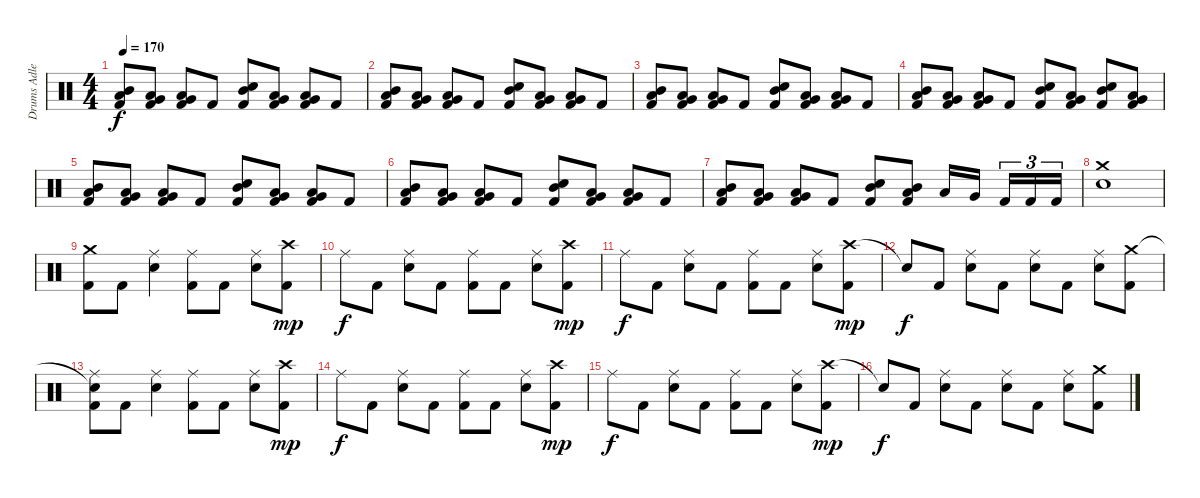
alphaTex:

\track ("Drums Adler" "Drums Adle") {instrument percussion}
\staff {score}
\articulation defaults
\ts (4 4)
\tempo 170
\clef neutral
\ks c
("Mid Tom (hit)" "Low Tom (hit)" "Kick (hit) 2").8{dy f} ("Low Tom (hit)" "Very Low Tom (hit)" "Kick (hit) 2").8 ("Low Floor Tom (hit)" "Very Low Tom (hit)" "Kick (hit) 2").8 "Kick (hit) 2".8 ("Mid Tom (hit)" "Snare (hit) 2" "Kick (hit) 2").8 ("Low Tom (hit)" "Very Low Tom (hit)" "Kick (hit) 2").8 ("Low Floor Tom (hit)" "Very Low Tom (hit)" "Kick (hit) 2").8 "Kick (hit) 2".8 |
("Mid Tom (hit)" "Low Tom (hit)" "Kick (hit) 2").8 ("Low Tom (hit)" "Very Low Tom (hit)" "Kick (hit) 2").8 ("Low Floor Tom (hit)" "Very Low Tom (hit)" "Kick (hit) 2").8 "Kick (hit) 2".8 ("Mid Tom (hit)" "Snare (hit) 2" "Kick (hit) 2").8 ("Low Tom (hit)" "Very Low Tom (hit)" "Kick (hit) 2").8 ("Low Floor Tom (hit)" "Very Low Tom (hit)" "Kick (hit) 2").8 "Kick (hit) 2".8 |
("Mid Tom (hit)" "Low Tom (hit)" "Kick (hit) 2").8 ("Low Tom (hit)" "Very Low Tom (hit)" "Kick (hit) 2").8 ("Low Floor Tom (hit)" "Very Low Tom (hit)" "Kick (hit) 2").8 "Kick (hit) 2".8 ("Mid Tom (hit)" "Snare (hit) 2" "Kick (hit) 2").8 ("Low Tom (hit)" "Very Low Tom (hit)" "Kick (hit) 2").8 ("Low Floor Tom (hit)" "Very Low Tom (hit)" "Kick (hit) 2").8 "Kick (hit) 2".8 |
("Mid Tom (hit)" "Low Tom (hit)" "Kick (hit) 2").8 ("Low Tom (hit)" "Very Low Tom (hit)" "Kick (hit) 2").8 ("Low Floor Tom (hit)" "Very Low Tom (hit)" "Kick (hit) 2").8 "Kick (hit) 2".8 ("Mid Tom (hit)" "Snare (hit) 2" "Kick (hit) 2").8 ("Low Tom (hit)" "Very Low Tom (hit)" "Kick (hit) 2").8 ("Mid Tom (hit)" "Snare (hit) 2" "Kick (hit) 2").8 ("Low Tom (hit)" "Very Low Tom (hit)" "Kick (hit) 2").8 |
("Mid Tom (hit)" "Low Tom (hit)" "Kick (hit) 2").8 ("Low Tom (hit)" "Very Low Tom (hit)" "Kick (hit) 2").8 ("Low Floor Tom (hit)" "Very Low Tom (hit)" "Kick (hit) 2").8 "Kick (hit) 2".8 ("Mid Tom (hit)" "Snare (hit) 2" "Kick (hit) 2").8 ("Low Tom (hit)" "Very Low Tom (hit)" "Kick (hit) 2").8 ("Low Floor Tom (hit)" "Very Low Tom (hit)" "Kick (hit) 2").8 "Kick (hit) 2".8 |
("Mid Tom (hit)" "Low Tom (hit)" "Kick (hit) 2").8 ("Low Tom (hit)" "Very Low Tom (hit)" "Kick (hit) 2").8 ("Low Floor Tom (hit)" "Very Low Tom (hit)" "Kick (hit) 2").8 "Kick (hit) 2".8 ("Mid Tom (hit)" "Snare (hit) 2" "Kick (hit) 2").8 ("Low Tom (hit)" "Very Low Tom (hit)" "Kick (hit) 2").8 ("Low Floor Tom (hit)" "Very Low Tom (hit)" "Kick (hit) 2").8 "Kick (hit) 2".8 |
("Mid Tom (hit)" "Low Tom (hit)" "Kick (hit) 2").8 ("Low Tom (hit)" "Very Low Tom (hit)" "Kick (hit) 2").8 ("Low Floor Tom (hit)" "Very Low Tom (hit)" "Kick (hit) 2").8 "Kick (hit) 2".8 ("Mid Tom (hit)" "Snare (hit) 2" "Kick (hit) 2").8 ("Low Tom (hit)" "Mid Tom (hit)" "Kick (hit) 2").8 "Low Tom (hit)".16 "Very Low Tom (hit)".16{beam splitsecondary} "Kick (hit) 2".16{tu (3 2)} "Kick (hit) 2".16{tu (3 2)} "Kick (hit) 2".16{tu (3 2)} |
("Crash medium (hit)" "Snare (hit) 2").1 |
("Crash medium (hit)" "Kick (hit) 2").8 "Kick (hit) 2".8 ("Ride (middle)" "Snare (hit) 2").4 ("Ride (middle)" "Kick (hit) 2").8 "Kick (hit) 2".8 ("Ride (middle)" "Snare (hit) 2").8 ("Crash high (hit)" "Kick (hit) 2").8{dy mp} |
"Ride (middle)".8{dy f} "Kick (hit) 2".8 ("Ride (middle)" "Snare (hit) 2").8 "Kick (hit) 2".8 ("Ride (middle)" "Kick (hit) 2").8 "Kick (hit) 2".8 ("Ride (middle)" "Snare (hit) 2").8 ("Crash high (hit)" "Kick (hit) 2").8{dy mp} |
"Ride (middle)".8{dy f} "Kick (hit) 2".8 ("Ride (middle)" "Snare (hit) 2").8 "Kick (hit) 2".8 ("Ride (middle)" "Kick (hit) 2").8 "Kick (hit) 2".8 ("Ride (middle)" "Snare (hit) 2").8 ("Crash high (hit)" "Kick (hit) 2").8{dy mp} |
"Snare (hit)"{t}.8{dy f} "Kick (hit) 2".8 ("Ride (middle)" "Snare (hit) 2").8 "Kick (hit) 2".8 ("Ride (middle)" "Snare (hit) 2").8 "Kick (hit) 2".8 ("Ride (middle)" "Snare (hit) 2").8 ("Crash medium (hit)" "Kick (hit) 2").8 |
("Snare (hit)"{t} "Ride (middle)" "Kick (hit) 2").8 "Kick (hit) 2".8 ("Ride (middle)" "Snare (hit) 2").4 ("Ride (middle)" "Kick (hit) 2").8 "Kick (hit) 2".8 ("Ride (middle)" "Snare (hit) 2").8 ("Crash high (hit)" "Kick (hit) 2").8{dy mp} |
"Ride (middle)".8{dy f} "Kick (hit) 2".8 ("Ride (middle)" "Snare (hit) 2").8 "Kick (hit) 2".8 ("Ride (middle)" "Kick (hit) 2").8 "Kick (hit) 2".8 ("Ride (middle)" "Snare (hit) 2").8 ("Crash high (hit)" "Kick (hit) 2").8{dy mp} |
"Ride (middle)".8{dy f} "Kick (hit) 2".8 ("Ride (middle)" "Snare (hit) 2").8 "Kick (hit) 2".8 ("Ride (middle)" "Kick (hit) 2").8 "Kick (hit) 2".8 ("Ride (middle)" "Snare (hit) 2").8 ("Crash high (hit)" "Kick (hit) 2").8{dy mp} |
"Snare (hit)"{t}.8{dy f} "Kick (hit) 2".8 ("Ride (middle)" "Snare (hit) 2").8 "Kick (hit) 2".8 ("Ride (middle)" "Snare (hit) 2").8 "Kick (hit) 2".8 ("Ride (middle)" "Snare (hit) 2").8 ("Crash medium (hit)" "Kick (hit) 2").8
